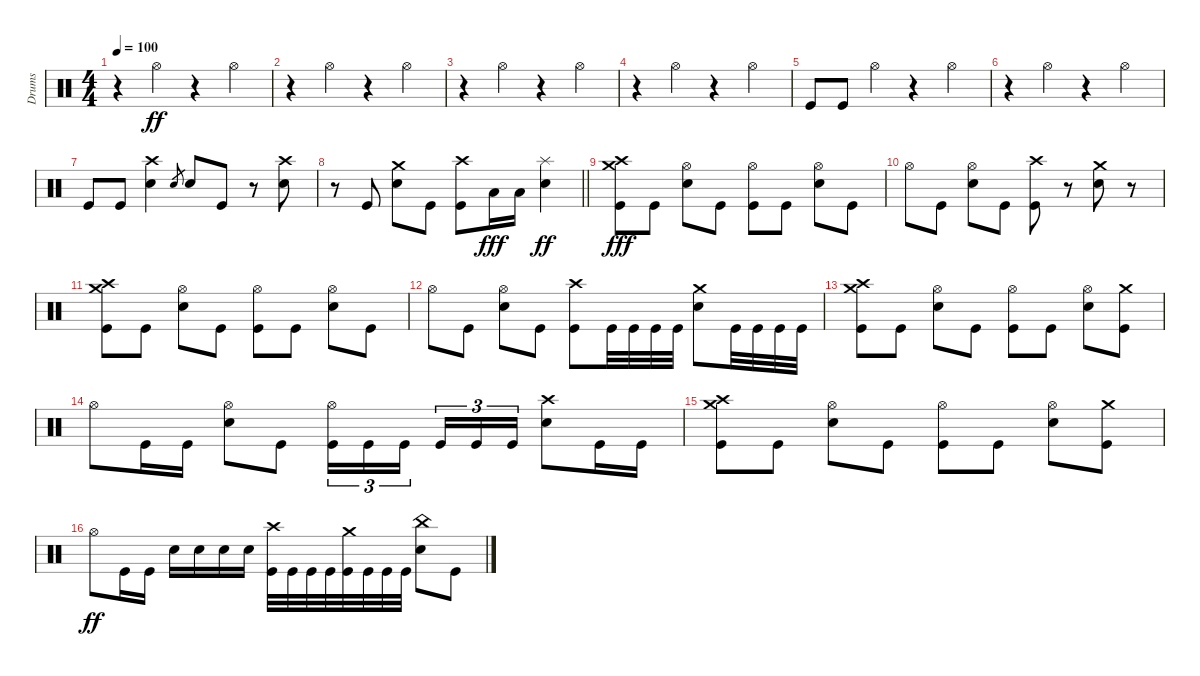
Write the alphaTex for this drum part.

\track ("Drums" "Drums") {instrument percussion}
\staff {score}
\articulation defaults
\ts (4 4)
\tempo 100
\clef neutral
\ks c
r.4{dy ff} "Hi-Hat (open)".4 r.4 "Hi-Hat (open)".4 |
r.4 "Hi-Hat (open)".4 r.4 "Hi-Hat (open)".4 |
r.4 "Hi-Hat (open)".4 r.4 "Hi-Hat (open)".4 |
r.4 "Hi-Hat (open)".4 r.4 "Hi-Hat (open)".4 |
"Kick (hit)".8 "Kick (hit)".8 "Hi-Hat (open)".4 r.4 "Hi-Hat (open)".4 |
r.4 "Hi-Hat (open)".4 r.4 "Hi-Hat (open)".4 |
"Kick (hit)".8 "Kick (hit)".8 ("Crash high (hit)" "Snare (hit) 2").4 "Snare (hit) 2".8{gr} "Snare (hit) 2".8 "Kick (hit)".8 r.8 ("Crash high (hit)" "Snare (hit) 2").8 |
\barLineRight lightlight
r.8 "Kick (hit)".8 ("Crash medium (hit)" "Snare (hit) 2").8 "Kick (hit)".8 ("Crash high (hit)" "Kick (hit)").8 "Low Floor Tom (hit)".16{dy fff} "Low Floor Tom (hit)".16 ("Splash (hit)" "Snare (hit) 2").4{dy ff} |
("Crash high (hit)" "Crash medium (hit)" "Kick (hit)").8{dy fff} "Kick (hit)".8 ("Hi-Hat (open)" "Snare (hit) 2").8 "Kick (hit)".8 ("Hi-Hat (open)" "Kick (hit)").8 "Kick (hit)".8 ("Hi-Hat (open)" "Snare (hit) 2").8 "Kick (hit)".8 |
"Hi-Hat (open)".8 "Kick (hit)".8 ("Hi-Hat (open)" "Snare (hit) 2").8 "Kick (hit)".8 ("Crash high (hit)" "Kick (hit)").8 r.8 ("Crash medium (hit)" "Snare (hit) 2").8 r.8 |
("Crash high (hit)" "Crash medium (hit)" "Kick (hit)").8 "Kick (hit)".8 ("Hi-Hat (open)" "Snare (hit) 2").8 "Kick (hit)".8 ("Hi-Hat (open)" "Kick (hit)").8 "Kick (hit)".8 ("Hi-Hat (open)" "Snare (hit) 2").8 "Kick (hit)".8 |
"Hi-Hat (open)".8 "Kick (hit)".8 ("Hi-Hat (open)" "Snare (hit) 2").8 "Kick (hit)".8 ("Crash high (hit)" "Kick (hit)").8 "Kick (hit)".32 "Kick (hit)".32 "Kick (hit)".32 "Kick (hit)".32 ("Crash medium (hit)" "Snare (hit) 2").8 "Kick (hit)".32 "Kick (hit)".32 "Kick (hit)".32 "Kick (hit)".32 |
("Crash high (hit)" "Crash medium (hit)" "Kick (hit)").8 "Kick (hit)".8 ("Hi-Hat (open)" "Snare (hit) 2").8 "Kick (hit)".8 ("Hi-Hat (open)" "Kick (hit)").8 "Kick (hit)".8 ("Hi-Hat (open)" "Snare (hit) 2").8 ("Crash medium (hit)" "Kick (hit)").8 |
"Hi-Hat (open)".8 "Kick (hit)".16 "Kick (hit)".16 ("Hi-Hat (open)" "Snare (hit) 2").8 "Kick (hit)".8 ("Hi-Hat (open)" "Kick (hit)").16{tu (3 2)} "Kick (hit)".16{tu (3 2)} "Kick (hit)".16{tu (3 2) beam splitsecondary} "Kick (hit)".16{tu (3 2)} "Kick (hit)".16{tu (3 2)} "Kick (hit)".16{tu (3 2)} ("Crash high (hit)" "Snare (hit) 2").8 "Kick (hit)".16 "Kick (hit)".16 |
("Crash high (hit)" "Crash medium (hit)" "Kick (hit)").8 "Kick (hit)".8 ("Hi-Hat (open)" "Snare (hit) 2").8 "Kick (hit)".8 ("Hi-Hat (open)" "Kick (hit)").8 "Kick (hit)".8 ("Hi-Hat (open)" "Snare (hit) 2").8 ("Crash medium (hit)" "Kick (hit)").8 |
"Hi-Hat (open)".8{dy ff} "Kick (hit)".16 "Kick (hit)".16 "Snare (hit) 2".16 "Snare (hit) 2".16 "Snare (hit) 2".16 "Snare (hit) 2".16 ("Crash high (hit)" "Kick (hit)").32 "Kick (hit)".32 "Kick (hit)".32 "Kick (hit)".32 ("Crash medium (hit)" "Kick (hit)").32 "Kick (hit)".32 "Kick (hit)".32 "Kick (hit)".32 ("China (hit)" "Snare (hit) 2").8 "Kick (hit)".8
